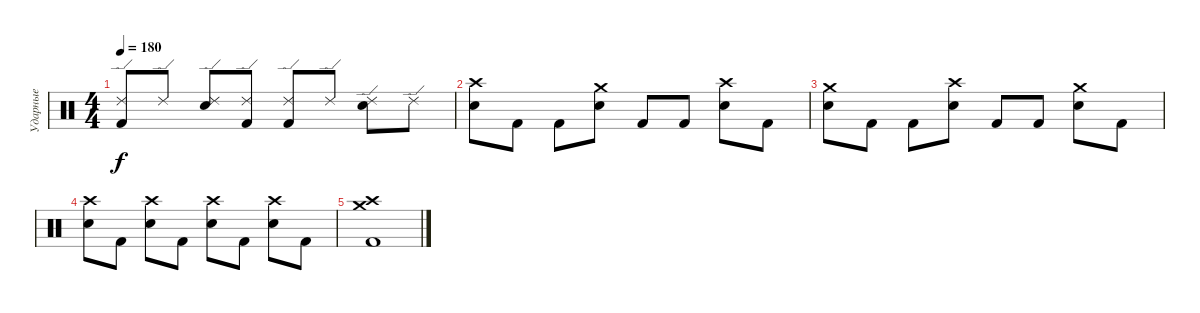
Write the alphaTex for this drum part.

\track ("Ударные" "Ударные") {instrument percussion}
\staff {score}
\articulation defaults
\ts (4 4)
\tempo 180
\clef neutral
\ks c
("Ride (edge) 2" "Kick (hit) 2").8{dy f} "Ride (edge) 2".8 ("Ride (edge) 2" "Electric Snare (hit)").8 ("Ride (edge) 2" "Kick (hit) 2").8 ("Ride (edge) 2" "Kick (hit) 2").8 "Ride (edge) 2".8 ("Ride (edge) 2" "Electric Snare (hit)").8 "Ride (edge) 2".8 |
("Crash high (hit)" "Electric Snare (hit)").8 "Kick (hit) 2".8 "Kick (hit) 2".8 ("Crash medium (hit)" "Electric Snare (hit)").8 "Kick (hit) 2".8 "Kick (hit) 2".8 ("Crash high (hit)" "Electric Snare (hit)").8 "Kick (hit) 2".8 |
("Crash medium (hit)" "Electric Snare (hit)").8 "Kick (hit) 2".8 "Kick (hit) 2".8 ("Crash high (hit)" "Electric Snare (hit)").8 "Kick (hit) 2".8 "Kick (hit) 2".8 ("Crash medium (hit)" "Electric Snare (hit)").8 "Kick (hit) 2".8 |
("Crash high (hit)" "Electric Snare (hit)").8 "Kick (hit) 2".8 ("Crash high (hit)" "Electric Snare (hit)").8 "Kick (hit) 2".8 ("Crash high (hit)" "Electric Snare (hit)").8 "Kick (hit) 2".8 ("Crash high (hit)" "Electric Snare (hit)").8 "Kick (hit) 2".8 |
("Crash medium (hit)" "Crash high (hit)" "Kick (hit) 2").1
